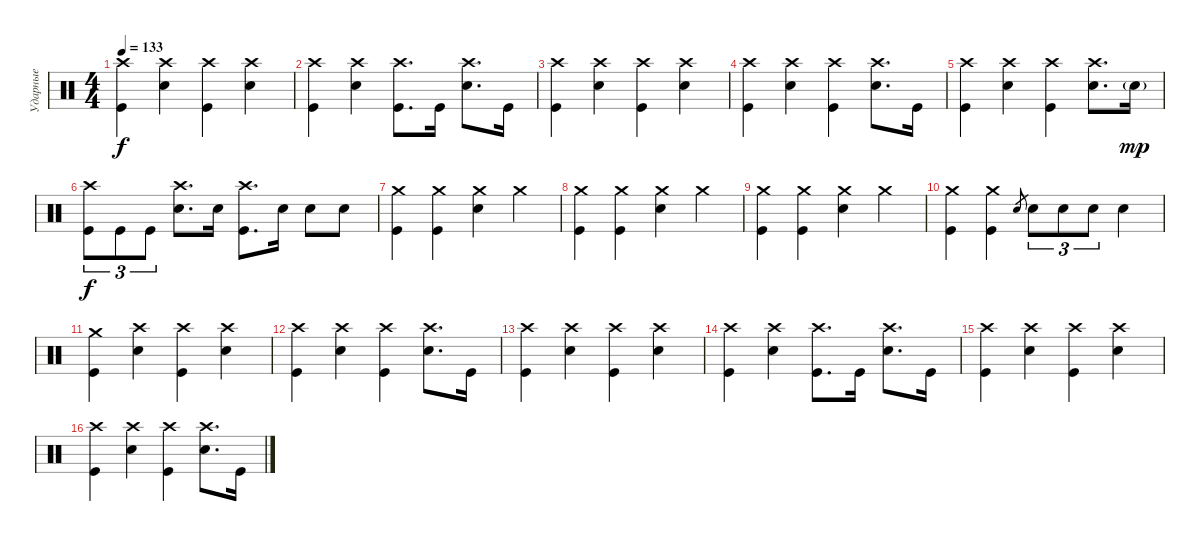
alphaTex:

\track ("Ударные" "Ударные") {instrument percussion}
\staff {score}
\articulation defaults
\ts (4 4)
\tempo 133
\clef neutral
\ks c
("Crash high (hit)" "Kick (hit)").4{dy f} ("Crash high (hit)" "Electric Snare (hit)").4 ("Crash high (hit)" "Kick (hit)").4 ("Crash high (hit)" "Electric Snare (hit)").4 |
("Crash high (hit)" "Kick (hit)").4 ("Crash high (hit)" "Electric Snare (hit)").4 ("Crash high (hit)" "Kick (hit)").8{d} "Kick (hit)".16 ("Crash high (hit)" "Electric Snare (hit)").8{d} "Kick (hit)".16 |
("Crash high (hit)" "Kick (hit)").4 ("Crash high (hit)" "Electric Snare (hit)").4 ("Crash high (hit)" "Kick (hit)").4 ("Crash high (hit)" "Electric Snare (hit)").4 |
("Crash high (hit)" "Kick (hit)").4 ("Crash high (hit)" "Electric Snare (hit)").4 ("Crash high (hit)" "Kick (hit)").4 ("Crash high (hit)" "Electric Snare (hit)").8{d} "Kick (hit)".16 |
("Crash high (hit)" "Kick (hit)").4 ("Crash high (hit)" "Electric Snare (hit)").4 ("Crash high (hit)" "Kick (hit)").4 ("Crash high (hit)" "Electric Snare (hit)").8{d} "Electric Snare (hit)"{g}.16{dy mp} |
("Crash high (hit)" "Kick (hit)").8{tu (3 2) dy f} "Kick (hit)".8{tu (3 2)} "Kick (hit)".8{tu (3 2)} ("Crash high (hit)" "Electric Snare (hit)").8{d} "Electric Snare (hit)".16 ("Crash high (hit)" "Kick (hit)").8{d} "Electric Snare (hit)".16 "Electric Snare (hit)".8 "Electric Snare (hit)".8 |
("Crash medium (hit)" "Kick (hit)").4 ("Crash medium (hit)" "Kick (hit)").4 ("Crash medium (hit)" "Electric Snare (hit)").4 "Crash medium (hit)".4 |
("Crash medium (hit)" "Kick (hit)").4 ("Crash medium (hit)" "Kick (hit)").4 ("Crash medium (hit)" "Electric Snare (hit)").4 "Crash medium (hit)".4 |
("Crash medium (hit)" "Kick (hit)").4 ("Crash medium (hit)" "Kick (hit)").4 ("Crash medium (hit)" "Electric Snare (hit)").4 "Crash medium (hit)".4 |
("Crash medium (hit)" "Kick (hit)").4 ("Crash medium (hit)" "Kick (hit)").4 "Electric Snare (hit)".8{gr} "Electric Snare (hit)".8{tu (3 2)} "Electric Snare (hit)".8{tu (3 2)} "Electric Snare (hit)".8{tu (3 2)} "Electric Snare (hit)".4 |
("Crash medium (hit)" "Kick (hit)").4 ("Crash high (hit)" "Electric Snare (hit)").4 ("Crash high (hit)" "Kick (hit)").4 ("Crash high (hit)" "Electric Snare (hit)").4 |
("Crash high (hit)" "Kick (hit)").4 ("Crash high (hit)" "Electric Snare (hit)").4 ("Crash high (hit)" "Kick (hit)").4 ("Crash high (hit)" "Electric Snare (hit)").8{d} "Kick (hit)".16 |
("Crash high (hit)" "Kick (hit)").4 ("Crash high (hit)" "Electric Snare (hit)").4 ("Crash high (hit)" "Kick (hit)").4 ("Crash high (hit)" "Electric Snare (hit)").4 |
("Crash high (hit)" "Kick (hit)").4 ("Crash high (hit)" "Electric Snare (hit)").4 ("Crash high (hit)" "Kick (hit)").8{d} "Kick (hit)".16 ("Crash high (hit)" "Electric Snare (hit)").8{d} "Kick (hit)".16 |
("Crash high (hit)" "Kick (hit)").4 ("Crash high (hit)" "Electric Snare (hit)").4 ("Crash high (hit)" "Kick (hit)").4 ("Crash high (hit)" "Electric Snare (hit)").4 |
("Crash high (hit)" "Kick (hit)").4 ("Crash high (hit)" "Electric Snare (hit)").4 ("Crash high (hit)" "Kick (hit)").4 ("Crash high (hit)" "Electric Snare (hit)").8{d} "Kick (hit)".16
